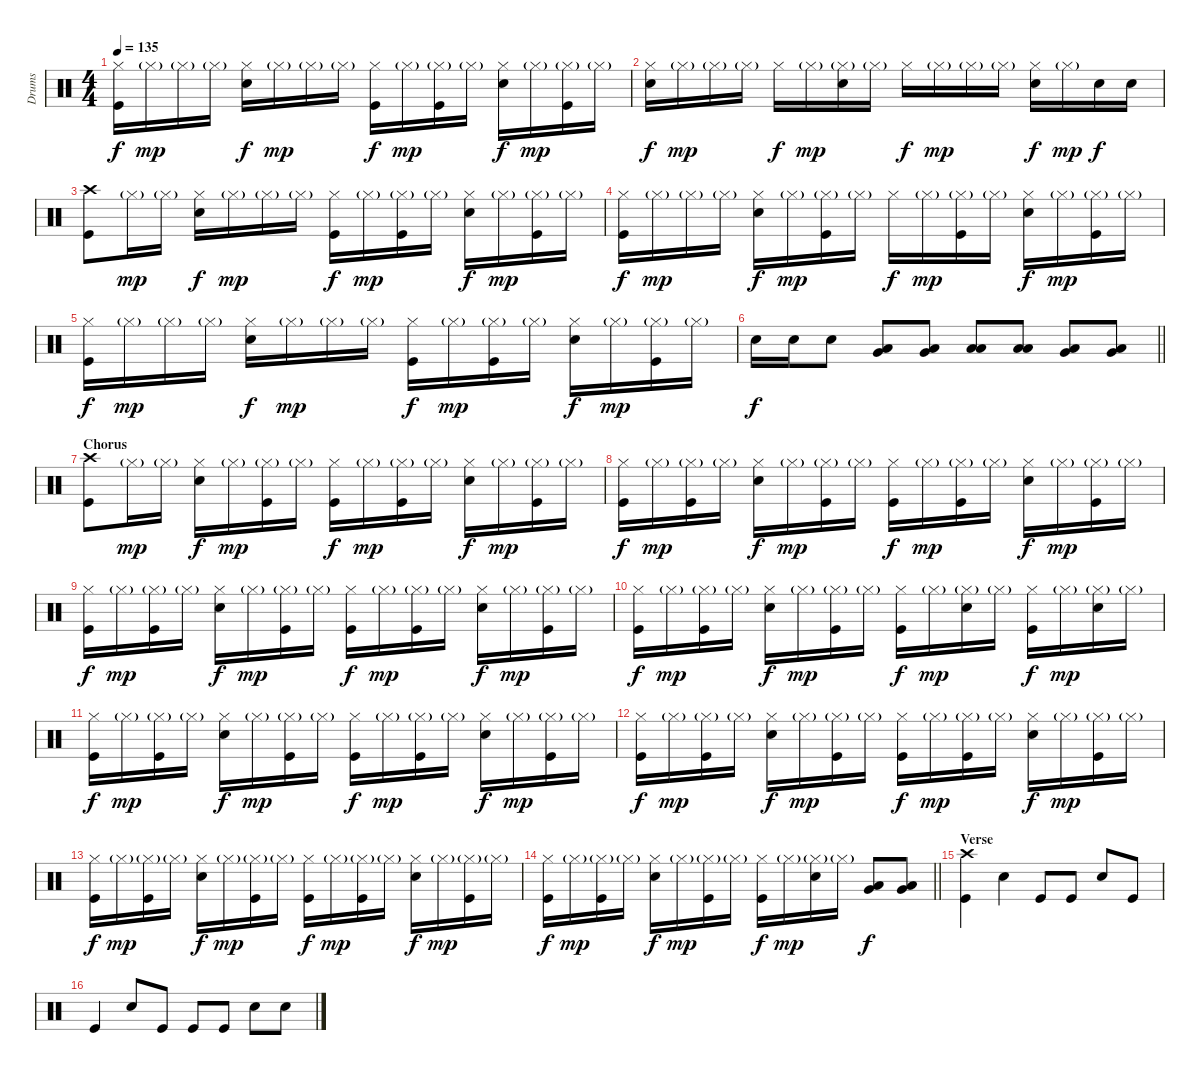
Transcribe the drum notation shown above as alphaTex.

\track ("Drums" "Drums") {instrument percussion}
\staff {score}
\articulation defaults
\ts (4 4)
\tempo 135
\clef neutral
\ks c
("Hi-Hat (closed)" "Kick (hit)").16{dy f} "Hi-Hat (closed)"{g}.16{dy mp} "Hi-Hat (closed)"{g}.16 "Hi-Hat (closed)"{g}.16 ("Hi-Hat (closed)" "Snare (hit) 2").16{dy f} "Hi-Hat (closed)"{g}.16{dy mp} "Hi-Hat (closed)"{g}.16 "Hi-Hat (closed)"{g}.16 ("Hi-Hat (closed)" "Kick (hit)").16{dy f} "Hi-Hat (closed)"{g}.16{dy mp} ("Hi-Hat (closed)"{g} "Kick (hit)").16 "Hi-Hat (closed)"{g}.16 ("Hi-Hat (closed)" "Snare (hit) 2").16{dy f} "Hi-Hat (closed)"{g}.16{dy mp} ("Hi-Hat (closed)"{g} "Kick (hit)").16 "Hi-Hat (closed)"{g}.16 |
("Hi-Hat (closed)" "Snare (hit) 2").16{dy f} "Hi-Hat (closed)"{g}.16{dy mp} "Hi-Hat (closed)"{g}.16 "Hi-Hat (closed)"{g}.16 "Hi-Hat (closed)".16{dy f} "Hi-Hat (closed)"{g}.16{dy mp} ("Hi-Hat (closed)"{g} "Snare (hit) 2").16 "Hi-Hat (closed)"{g}.16 "Hi-Hat (closed)".16{dy f} "Hi-Hat (closed)"{g}.16{dy mp} "Hi-Hat (closed)"{g}.16 "Hi-Hat (closed)"{g}.16 ("Hi-Hat (closed)" "Snare (hit) 2").16{dy f} "Hi-Hat (closed)"{g}.16{dy mp} "Snare (hit) 2".16{dy f} "Snare (hit) 2".16 |
("Crash high (hit)" "Kick (hit)").8 "Hi-Hat (closed)"{g}.16{dy mp} "Hi-Hat (closed)"{g}.16 ("Hi-Hat (closed)" "Snare (hit) 2").16{dy f} "Hi-Hat (closed)"{g}.16{dy mp} "Hi-Hat (closed)"{g}.16 "Hi-Hat (closed)"{g}.16 ("Hi-Hat (closed)" "Kick (hit)").16{dy f} "Hi-Hat (closed)"{g}.16{dy mp} ("Hi-Hat (closed)"{g} "Kick (hit)").16 "Hi-Hat (closed)"{g}.16 ("Hi-Hat (closed)" "Snare (hit) 2").16{dy f} "Hi-Hat (closed)"{g}.16{dy mp} ("Hi-Hat (closed)"{g} "Kick (hit)").16 "Hi-Hat (closed)"{g}.16 |
("Hi-Hat (closed)" "Kick (hit)").16{dy f} "Hi-Hat (closed)"{g}.16{dy mp} "Hi-Hat (closed)"{g}.16 "Hi-Hat (closed)"{g}.16 ("Hi-Hat (closed)" "Snare (hit) 2").16{dy f} "Hi-Hat (closed)"{g}.16{dy mp} ("Hi-Hat (closed)"{g} "Kick (hit)").16 "Hi-Hat (closed)"{g}.16 "Hi-Hat (closed)".16{dy f} "Hi-Hat (closed)"{g}.16{dy mp} ("Hi-Hat (closed)"{g} "Kick (hit)").16 "Hi-Hat (closed)"{g}.16 ("Hi-Hat (closed)" "Snare (hit) 2").16{dy f} "Hi-Hat (closed)"{g}.16{dy mp} ("Hi-Hat (closed)"{g} "Kick (hit)").16 "Hi-Hat (closed)"{g}.16 |
("Hi-Hat (closed)" "Kick (hit)").16{dy f} "Hi-Hat (closed)"{g}.16{dy mp} "Hi-Hat (closed)"{g}.16 "Hi-Hat (closed)"{g}.16 ("Hi-Hat (closed)" "Snare (hit) 2").16{dy f} "Hi-Hat (closed)"{g}.16{dy mp} "Hi-Hat (closed)"{g}.16 "Hi-Hat (closed)"{g}.16 ("Hi-Hat (closed)" "Kick (hit)").16{dy f} "Hi-Hat (closed)"{g}.16{dy mp} ("Hi-Hat (closed)"{g} "Kick (hit)").16 "Hi-Hat (closed)"{g}.16 ("Hi-Hat (closed)" "Snare (hit) 2").16{dy f} "Hi-Hat (closed)"{g}.16{dy mp} ("Hi-Hat (closed)"{g} "Kick (hit)").16 "Hi-Hat (closed)"{g}.16 |
\barLineRight lightlight "Snare (hit) 2".16{dy f} "Snare (hit) 2".16 "Snare (hit) 2".8
("Low Tom (hit)" "Very Low Tom (hit)").8 ("Low Tom (hit)" "Very Low Tom (hit)").8 ("Low Tom (hit)" "Low Tom (hit)").8 ("Low Tom (hit)" "Low Tom (hit)").8 ("Low Tom (hit)" "Very Low Tom (hit)").8 ("Low Tom (hit)" "Very Low Tom (hit)").8 |
\section ("" "Chorus")
("Crash high (hit)" "Kick (hit)").8 "Hi-Hat (closed)"{g}.16{dy mp} "Hi-Hat (closed)"{g}.16 ("Hi-Hat (closed)" "Snare (hit) 2").16{dy f} "Hi-Hat (closed)"{g}.16{dy mp} ("Hi-Hat (closed)"{g} "Kick (hit)").16 "Hi-Hat (closed)"{g}.16 ("Hi-Hat (closed)" "Kick (hit)").16{dy f} "Hi-Hat (closed)"{g}.16{dy mp} ("Hi-Hat (closed)"{g} "Kick (hit)").16 "Hi-Hat (closed)"{g}.16 ("Hi-Hat (closed)" "Snare (hit) 2").16{dy f} "Hi-Hat (closed)"{g}.16{dy mp} ("Hi-Hat (closed)"{g} "Kick (hit)").16 "Hi-Hat (closed)"{g}.16 |
("Hi-Hat (closed)" "Kick (hit)").16{dy f} "Hi-Hat (closed)"{g}.16{dy mp} ("Hi-Hat (closed)"{g} "Kick (hit)").16 "Hi-Hat (closed)"{g}.16 ("Hi-Hat (closed)" "Snare (hit) 2").16{dy f} "Hi-Hat (closed)"{g}.16{dy mp} ("Hi-Hat (closed)"{g} "Kick (hit)").16 "Hi-Hat (closed)"{g}.16 ("Hi-Hat (closed)" "Kick (hit)").16{dy f} "Hi-Hat (closed)"{g}.16{dy mp} ("Hi-Hat (closed)"{g} "Kick (hit)").16 "Hi-Hat (closed)"{g}.16 ("Hi-Hat (closed)" "Snare (hit) 2").16{dy f} "Hi-Hat (closed)"{g}.16{dy mp} ("Hi-Hat (closed)"{g} "Kick (hit)").16 "Hi-Hat (closed)"{g}.16 |
("Hi-Hat (closed)" "Kick (hit)").16{dy f} "Hi-Hat (closed)"{g}.16{dy mp} ("Hi-Hat (closed)"{g} "Kick (hit)").16 "Hi-Hat (closed)"{g}.16 ("Hi-Hat (closed)" "Snare (hit) 2").16{dy f} "Hi-Hat (closed)"{g}.16{dy mp} ("Hi-Hat (closed)"{g} "Kick (hit)").16 "Hi-Hat (closed)"{g}.16 ("Hi-Hat (closed)" "Kick (hit)").16{dy f} "Hi-Hat (closed)"{g}.16{dy mp} ("Hi-Hat (closed)"{g} "Kick (hit)").16 "Hi-Hat (closed)"{g}.16 ("Hi-Hat (closed)" "Snare (hit) 2").16{dy f} "Hi-Hat (closed)"{g}.16{dy mp} ("Hi-Hat (closed)"{g} "Kick (hit)").16 "Hi-Hat (closed)"{g}.16 |
("Hi-Hat (closed)" "Kick (hit)").16{dy f} "Hi-Hat (closed)"{g}.16{dy mp} ("Hi-Hat (closed)"{g} "Kick (hit)").16 "Hi-Hat (closed)"{g}.16 ("Hi-Hat (closed)" "Snare (hit) 2").16{dy f} "Hi-Hat (closed)"{g}.16{dy mp} ("Hi-Hat (closed)"{g} "Kick (hit)").16 "Hi-Hat (closed)"{g}.16 ("Hi-Hat (closed)" "Kick (hit)").16{dy f} "Hi-Hat (closed)"{g}.16{dy mp} ("Hi-Hat (closed)"{g} "Snare (hit) 2").16 "Hi-Hat (closed)"{g}.16 ("Hi-Hat (closed)" "Kick (hit)").16{dy f} "Hi-Hat (closed)"{g}.16{dy mp} ("Hi-Hat (closed)"{g} "Snare (hit) 2").16 "Hi-Hat (closed)"{g}.16 |
("Hi-Hat (closed)" "Kick (hit)").16{dy f} "Hi-Hat (closed)"{g}.16{dy mp} ("Hi-Hat (closed)"{g} "Kick (hit)").16 "Hi-Hat (closed)"{g}.16 ("Hi-Hat (closed)" "Snare (hit) 2").16{dy f} "Hi-Hat (closed)"{g}.16{dy mp} ("Hi-Hat (closed)"{g} "Kick (hit)").16 "Hi-Hat (closed)"{g}.16 ("Hi-Hat (closed)" "Kick (hit)").16{dy f} "Hi-Hat (closed)"{g}.16{dy mp} ("Hi-Hat (closed)"{g} "Kick (hit)").16 "Hi-Hat (closed)"{g}.16 ("Hi-Hat (closed)" "Snare (hit) 2").16{dy f} "Hi-Hat (closed)"{g}.16{dy mp} ("Hi-Hat (closed)"{g} "Kick (hit)").16 "Hi-Hat (closed)"{g}.16 |
("Hi-Hat (closed)" "Kick (hit)").16{dy f} "Hi-Hat (closed)"{g}.16{dy mp} ("Hi-Hat (closed)"{g} "Kick (hit)").16 "Hi-Hat (closed)"{g}.16 ("Hi-Hat (closed)" "Snare (hit) 2").16{dy f} "Hi-Hat (closed)"{g}.16{dy mp} ("Hi-Hat (closed)"{g} "Kick (hit)").16 "Hi-Hat (closed)"{g}.16 ("Hi-Hat (closed)" "Kick (hit)").16{dy f} "Hi-Hat (closed)"{g}.16{dy mp} ("Hi-Hat (closed)"{g} "Kick (hit)").16 "Hi-Hat (closed)"{g}.16 ("Hi-Hat (closed)" "Snare (hit) 2").16{dy f} "Hi-Hat (closed)"{g}.16{dy mp} ("Hi-Hat (closed)"{g} "Kick (hit)").16 "Hi-Hat (closed)"{g}.16 |
("Hi-Hat (closed)" "Kick (hit)").16{dy f} "Hi-Hat (closed)"{g}.16{dy mp} ("Hi-Hat (closed)"{g} "Kick (hit)").16 "Hi-Hat (closed)"{g}.16 ("Hi-Hat (closed)" "Snare (hit) 2").16{dy f} "Hi-Hat (closed)"{g}.16{dy mp} ("Hi-Hat (closed)"{g} "Kick (hit)").16 "Hi-Hat (closed)"{g}.16 ("Hi-Hat (closed)" "Kick (hit)").16{dy f} "Hi-Hat (closed)"{g}.16{dy mp} ("Hi-Hat (closed)"{g} "Kick (hit)").16 "Hi-Hat (closed)"{g}.16 ("Hi-Hat (closed)" "Snare (hit) 2").16{dy f} "Hi-Hat (closed)"{g}.16{dy mp} ("Hi-Hat (closed)"{g} "Kick (hit)").16 "Hi-Hat (closed)"{g}.16 |
\barLineRight lightlight
("Hi-Hat (closed)" "Kick (hit)").16{dy f} "Hi-Hat (closed)"{g}.16{dy mp} ("Hi-Hat (closed)"{g} "Kick (hit)").16 "Hi-Hat (closed)"{g}.16 ("Hi-Hat (closed)" "Snare (hit) 2").16{dy f} "Hi-Hat (closed)"{g}.16{dy mp} ("Hi-Hat (closed)"{g} "Kick (hit)").16 "Hi-Hat (closed)"{g}.16 ("Hi-Hat (closed)" "Kick (hit)").16{dy f} "Hi-Hat (closed)"{g}.16{dy mp} ("Hi-Hat (closed)"{g} "Snare (hit) 2").16 "Hi-Hat (closed)"{g}.16 ("Low Tom (hit)" "Very Low Tom (hit)").8{dy f} ("Low Tom (hit)" "Very Low Tom (hit)").8 |
\section ("" "Verse")
("Crash high (hit)" "Kick (hit)").4 "Snare (hit) 2".4 "Kick (hit)".8 "Kick (hit)".8 "Snare (hit) 2".8 "Kick (hit)".8 |
"Kick (hit)".4 "Snare (hit) 2".8 "Kick (hit)".8 "Kick (hit)".8 "Kick (hit)".8 "Snare (hit) 2".8 "Snare (hit) 2".8
